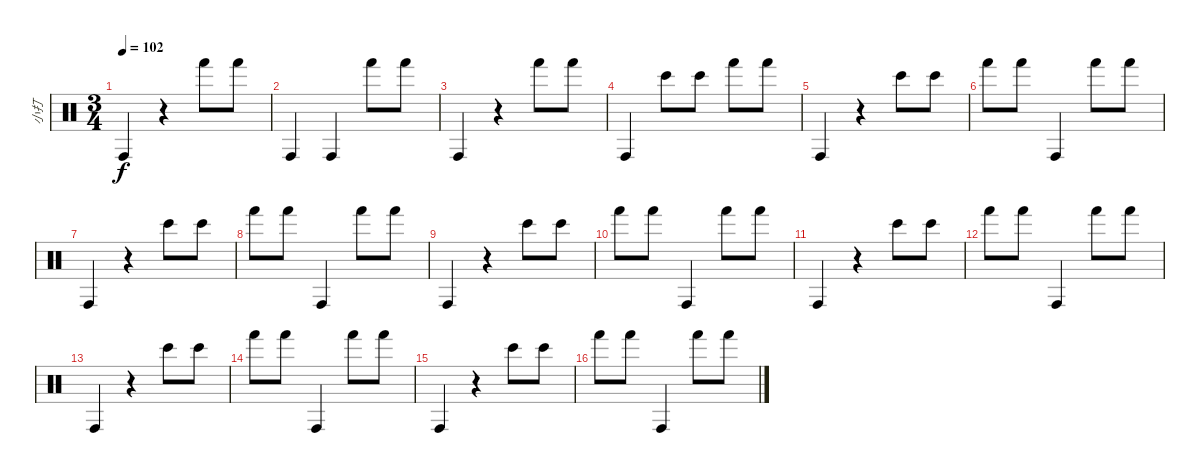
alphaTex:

\track ("小打" "小打") {instrument percussion}
\staff {score}
\articulation defaults
\ts (3 4)
\tempo 102
\clef neutral
\ks c "Conga high (hit)".4{dy f}
r.4 "Hand (hit)".8 "Hand (hit)".8 |
"Conga high (hit)".4 "Conga high (hit)".4 "Hand (hit)".8 "Hand (hit)".8 |
"Conga high (hit)".4 r.4 "Hand (hit)".8 "Hand (hit)".8 |
"Conga high (hit)".4 "Bongo High (hit)".8 "Bongo High (hit)".8 "Hand (hit)".8 "Hand (hit)".8 |
"Conga high (hit)".4 r.4 "Bongo High (hit)".8 "Bongo High (hit)".8 |
"Hand (hit)".8 "Hand (hit)".8 "Conga high (hit)".4 "Hand (hit)".8 "Hand (hit)".8 |
"Conga high (hit)".4 r.4 "Bongo High (hit)".8 "Bongo High (hit)".8 |
"Hand (hit)".8 "Hand (hit)".8 "Conga high (hit)".4 "Hand (hit)".8 "Hand (hit)".8 |
"Conga high (hit)".4 r.4 "Bongo High (hit)".8 "Bongo High (hit)".8 |
"Hand (hit)".8 "Hand (hit)".8 "Conga high (hit)".4 "Hand (hit)".8 "Hand (hit)".8 |
"Conga high (hit)".4 r.4 "Bongo High (hit)".8 "Bongo High (hit)".8 |
"Hand (hit)".8 "Hand (hit)".8 "Conga high (hit)".4 "Hand (hit)".8 "Hand (hit)".8 |
"Conga high (hit)".4 r.4 "Bongo High (hit)".8 "Bongo High (hit)".8 |
"Hand (hit)".8 "Hand (hit)".8 "Conga high (hit)".4 "Hand (hit)".8 "Hand (hit)".8 |
"Conga high (hit)".4 r.4 "Bongo High (hit)".8 "Bongo High (hit)".8 |
"Hand (hit)".8 "Hand (hit)".8 "Conga high (hit)".4 "Hand (hit)".8 "Hand (hit)".8
